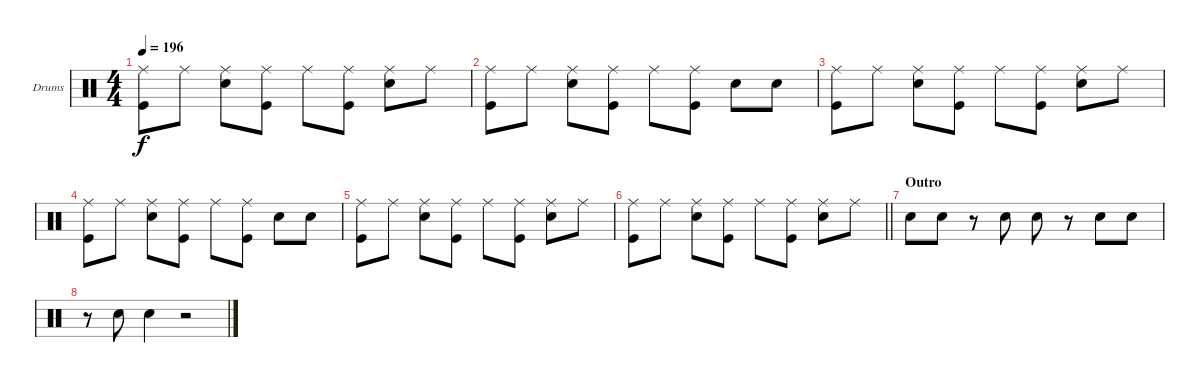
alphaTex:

\bracketExtendMode groupsimilarinstruments
\firstSystemTrackNameOrientation horizontal
\otherSystemsTrackNameOrientation horizontal
\track ("Fabrizio" "Drums") {instrument percussion}
\staff {score}
\articulation defaults
\ts (4 4)
\tempo 196
\clef neutral
\ks c
("Kick (hit)" "Ride (middle)").8{dy f} "Ride (middle)".8 ("Snare (hit) 2" "Ride (middle)").8 ("Kick (hit)" "Ride (middle)").8 "Ride (middle)".8 ("Kick (hit)" "Ride (middle)").8 ("Snare (hit) 2" "Ride (middle)").8 "Ride (middle)".8 |
("Kick (hit)" "Ride (middle)").8 "Ride (middle)".8 ("Snare (hit) 2" "Ride (middle)").8 ("Kick (hit)" "Ride (middle)").8 "Ride (middle)".8 ("Kick (hit)" "Ride (middle)").8 "Snare (hit) 2".8 "Snare (hit) 2".8 |
("Kick (hit)" "Ride (middle)").8 "Ride (middle)".8 ("Snare (hit) 2" "Ride (middle)").8 ("Kick (hit)" "Ride (middle)").8 "Ride (middle)".8 ("Kick (hit)" "Ride (middle)").8 ("Snare (hit) 2" "Ride (middle)").8 "Ride (middle)".8 |
("Kick (hit)" "Ride (middle)").8 "Ride (middle)".8 ("Snare (hit) 2" "Ride (middle)").8 ("Kick (hit)" "Ride (middle)").8 "Ride (middle)".8 ("Kick (hit)" "Ride (middle)").8 "Snare (hit) 2".8 "Snare (hit) 2".8 |
("Kick (hit)" "Ride (middle)").8 "Ride (middle)".8 ("Snare (hit) 2" "Ride (middle)").8 ("Kick (hit)" "Ride (middle)").8 "Ride (middle)".8 ("Kick (hit)" "Ride (middle)").8 ("Snare (hit) 2" "Ride (middle)").8 "Ride (middle)".8 |
\barLineRight lightlight
("Kick (hit)" "Ride (middle)").8 "Ride (middle)".8 ("Snare (hit) 2" "Ride (middle)").8 ("Kick (hit)" "Ride (middle)").8 "Ride (middle)".8 ("Kick (hit)" "Ride (middle)").8 ("Snare (hit) 2" "Ride (middle)").8 "Ride (middle)".8 |
\section ("" "Outro")
"Snare (hit) 2".8 "Snare (hit) 2".8 r.8 "Snare (hit) 2".8 "Snare (hit) 2".8 r.8 "Snare (hit) 2".8 "Snare (hit) 2".8 |
r.8 "Snare (hit) 2".8 "Snare (hit) 2".4 r.2
